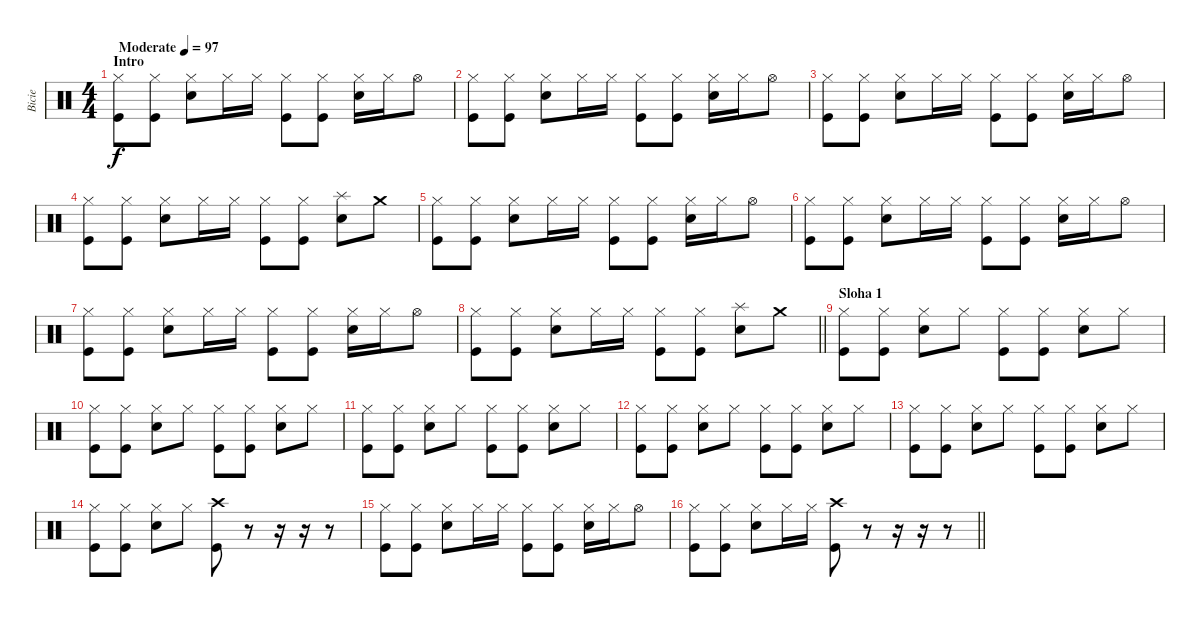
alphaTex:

\track ("Bicie" "Bicie") {instrument percussion}
\staff {score}
\articulation defaults
\ts (4 4)
\section ("" "Intro")
\tempo (97 "Moderate")
\clef neutral
\ks c
("Hi-Hat (closed)" "Kick (hit)").8{dy f} ("Hi-Hat (closed)" "Kick (hit)").8 ("Hi-Hat (closed)" "Electric Snare (hit)").8 "Hi-Hat (closed)".16 "Hi-Hat (closed)".16 ("Hi-Hat (closed)" "Kick (hit)").8 ("Hi-Hat (closed)" "Kick (hit)").8 ("Hi-Hat (closed)" "Electric Snare (hit)").16 "Hi-Hat (closed)".16 "Hi-Hat (open)".8 |
("Hi-Hat (closed)" "Kick (hit)").8 ("Hi-Hat (closed)" "Kick (hit)").8 ("Hi-Hat (closed)" "Electric Snare (hit)").8 "Hi-Hat (closed)".16 "Hi-Hat (closed)".16 ("Hi-Hat (closed)" "Kick (hit)").8 ("Hi-Hat (closed)" "Kick (hit)").8 ("Hi-Hat (closed)" "Electric Snare (hit)").16 "Hi-Hat (closed)".16 "Hi-Hat (open)".8 |
("Hi-Hat (closed)" "Kick (hit)").8 ("Hi-Hat (closed)" "Kick (hit)").8 ("Hi-Hat (closed)" "Electric Snare (hit)").8 "Hi-Hat (closed)".16 "Hi-Hat (closed)".16 ("Hi-Hat (closed)" "Kick (hit)").8 ("Hi-Hat (closed)" "Kick (hit)").8 ("Hi-Hat (closed)" "Electric Snare (hit)").16 "Hi-Hat (closed)".16 "Hi-Hat (open)".8 |
("Hi-Hat (closed)" "Kick (hit)").8 ("Hi-Hat (closed)" "Kick (hit)").8 ("Hi-Hat (closed)" "Electric Snare (hit)").8 "Hi-Hat (closed)".16 "Hi-Hat (closed)".16 ("Hi-Hat (closed)" "Kick (hit)").8 ("Hi-Hat (closed)" "Kick (hit)").8 ("Splash (hit)" "Electric Snare (hit)").8 "Crash medium (hit)".8 |
("Hi-Hat (closed)" "Kick (hit)").8 ("Hi-Hat (closed)" "Kick (hit)").8 ("Hi-Hat (closed)" "Electric Snare (hit)").8 "Hi-Hat (closed)".16 "Hi-Hat (closed)".16 ("Hi-Hat (closed)" "Kick (hit)").8 ("Hi-Hat (closed)" "Kick (hit)").8 ("Hi-Hat (closed)" "Electric Snare (hit)").16 "Hi-Hat (closed)".16 "Hi-Hat (open)".8 |
("Hi-Hat (closed)" "Kick (hit)").8 ("Hi-Hat (closed)" "Kick (hit)").8 ("Hi-Hat (closed)" "Electric Snare (hit)").8 "Hi-Hat (closed)".16 "Hi-Hat (closed)".16 ("Hi-Hat (closed)" "Kick (hit)").8 ("Hi-Hat (closed)" "Kick (hit)").8 ("Hi-Hat (closed)" "Electric Snare (hit)").16 "Hi-Hat (closed)".16 "Hi-Hat (open)".8 |
("Hi-Hat (closed)" "Kick (hit)").8 ("Hi-Hat (closed)" "Kick (hit)").8 ("Hi-Hat (closed)" "Electric Snare (hit)").8 "Hi-Hat (closed)".16 "Hi-Hat (closed)".16 ("Hi-Hat (closed)" "Kick (hit)").8 ("Hi-Hat (closed)" "Kick (hit)").8 ("Hi-Hat (closed)" "Electric Snare (hit)").16 "Hi-Hat (closed)".16 "Hi-Hat (open)".8 |
\barLineRight lightlight
("Hi-Hat (closed)" "Kick (hit)").8 ("Hi-Hat (closed)" "Kick (hit)").8 ("Hi-Hat (closed)" "Electric Snare (hit)").8 "Hi-Hat (closed)".16 "Hi-Hat (closed)".16 ("Hi-Hat (closed)" "Kick (hit)").8 ("Hi-Hat (closed)" "Kick (hit)").8 ("Splash (hit)" "Electric Snare (hit)").8 "Crash medium (hit)".8 |
\section ("" "Sloha 1")
("Hi-Hat (closed)" "Kick (hit)").8 ("Hi-Hat (closed)" "Kick (hit)").8 ("Hi-Hat (closed)" "Electric Snare (hit)").8 "Hi-Hat (closed)".8 ("Hi-Hat (closed)" "Kick (hit)").8 ("Hi-Hat (closed)" "Kick (hit)").8 ("Hi-Hat (closed)" "Electric Snare (hit)").8 "Hi-Hat (closed)".8 |
("Hi-Hat (closed)" "Kick (hit)").8 ("Hi-Hat (closed)" "Kick (hit)").8 ("Hi-Hat (closed)" "Electric Snare (hit)").8 "Hi-Hat (closed)".8 ("Hi-Hat (closed)" "Kick (hit)").8 ("Hi-Hat (closed)" "Kick (hit)").8 ("Hi-Hat (closed)" "Electric Snare (hit)").8 "Hi-Hat (closed)".8 |
("Hi-Hat (closed)" "Kick (hit)").8 ("Hi-Hat (closed)" "Kick (hit)").8 ("Hi-Hat (closed)" "Electric Snare (hit)").8 "Hi-Hat (closed)".8 ("Hi-Hat (closed)" "Kick (hit)").8 ("Hi-Hat (closed)" "Kick (hit)").8 ("Hi-Hat (closed)" "Electric Snare (hit)").8 "Hi-Hat (closed)".8 |
("Hi-Hat (closed)" "Kick (hit)").8 ("Hi-Hat (closed)" "Kick (hit)").8 ("Hi-Hat (closed)" "Electric Snare (hit)").8 "Hi-Hat (closed)".8 ("Hi-Hat (closed)" "Kick (hit)").8 ("Hi-Hat (closed)" "Kick (hit)").8 ("Hi-Hat (closed)" "Electric Snare (hit)").8 "Hi-Hat (closed)".8 |
("Hi-Hat (closed)" "Kick (hit)").8 ("Hi-Hat (closed)" "Kick (hit)").8 ("Hi-Hat (closed)" "Electric Snare (hit)").8 "Hi-Hat (closed)".8 ("Hi-Hat (closed)" "Kick (hit)").8 ("Hi-Hat (closed)" "Kick (hit)").8 ("Hi-Hat (closed)" "Electric Snare (hit)").8 "Hi-Hat (closed)".8 |
("Hi-Hat (closed)" "Kick (hit)").8 ("Hi-Hat (closed)" "Kick (hit)").8 ("Hi-Hat (closed)" "Electric Snare (hit)").8 "Hi-Hat (closed)".8 ("Crash high (hit)" "Kick (hit)").8 r.8 r.16 r.16 r.8 |
("Hi-Hat (closed)" "Kick (hit)").8 ("Hi-Hat (closed)" "Kick (hit)").8 ("Hi-Hat (closed)" "Electric Snare (hit)").8 "Hi-Hat (closed)".16 "Hi-Hat (closed)".16 ("Hi-Hat (closed)" "Kick (hit)").8 ("Hi-Hat (closed)" "Kick (hit)").8 ("Hi-Hat (closed)" "Electric Snare (hit)").16 "Hi-Hat (closed)".16 "Hi-Hat (open)".8 |
\barLineRight lightlight
("Hi-Hat (closed)" "Kick (hit)").8 ("Hi-Hat (closed)" "Kick (hit)").8 ("Hi-Hat (closed)" "Electric Snare (hit)").8 "Hi-Hat (closed)".16 "Hi-Hat (closed)".16 ("Crash high (hit)" "Kick (hit)").8 r.8 r.16 r.16 r.8
